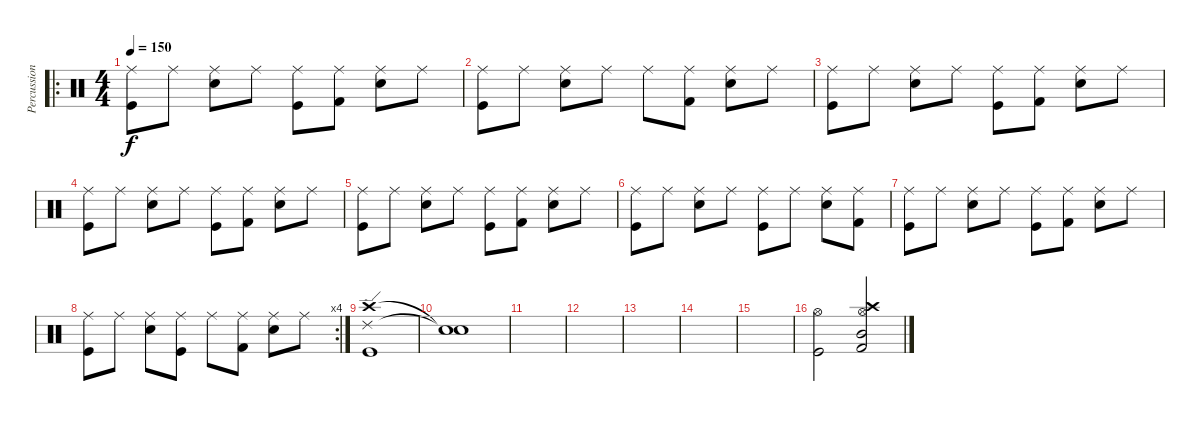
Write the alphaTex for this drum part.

\track ("Percussion" "Percussion") {instrument percussion}
\staff {score}
\articulation defaults
\ro
\ts (4 4)
\tempo 150
\clef neutral
\ks c
("Ride (middle)" "Kick (hit)").8{dy f} "Ride (middle)".8 ("Ride (middle)" "Electric Snare (hit)").8 "Ride (middle)".8 ("Ride (middle)" "Kick (hit)").8 ("Ride (middle)" "Kick (hit) 2").8 ("Ride (middle)" "Electric Snare (hit)").8 "Ride (middle)".8 |
("Ride (middle)" "Kick (hit)").8 "Ride (middle)".8 ("Ride (middle)" "Electric Snare (hit)").8 "Ride (middle)".8 "Ride (middle)".8 ("Ride (middle)" "Kick (hit) 2").8 ("Ride (middle)" "Electric Snare (hit)").8 "Ride (middle)".8 |
("Ride (middle)" "Kick (hit)").8 "Ride (middle)".8 ("Ride (middle)" "Electric Snare (hit)").8 "Ride (middle)".8 ("Ride (middle)" "Kick (hit)").8 ("Ride (middle)" "Kick (hit) 2").8 ("Ride (middle)" "Electric Snare (hit)").8 "Ride (middle)".8 |
("Ride (middle)" "Kick (hit)").8 "Ride (middle)".8 ("Ride (middle)" "Electric Snare (hit)").8 "Ride (middle)".8 ("Ride (middle)" "Kick (hit)").8 ("Ride (middle)" "Kick (hit) 2").8 ("Ride (middle)" "Electric Snare (hit)").8 "Ride (middle)".8 |
("Ride (middle)" "Kick (hit)").8 "Ride (middle)".8 ("Ride (middle)" "Electric Snare (hit)").8 "Ride (middle)".8 ("Ride (middle)" "Kick (hit)").8 ("Ride (middle)" "Kick (hit) 2").8 ("Ride (middle)" "Electric Snare (hit)").8 "Ride (middle)".8 |
("Ride (middle)" "Kick (hit)").8 "Ride (middle)".8 ("Ride (middle)" "Electric Snare (hit)").8 "Ride (middle)".8 ("Ride (middle)" "Kick (hit)").8 "Ride (middle)".8 ("Ride (middle)" "Electric Snare (hit)").8 ("Ride (middle)" "Kick (hit) 2").8 |
("Ride (middle)" "Kick (hit)").8 "Ride (middle)".8 ("Ride (middle)" "Electric Snare (hit)").8 "Ride (middle)".8 ("Ride (middle)" "Kick (hit)").8 ("Ride (middle)" "Kick (hit) 2").8 ("Ride (middle)" "Electric Snare (hit)").8 "Ride (middle)".8 |
\rc 4
("Ride (middle)" "Kick (hit)").8 "Ride (middle)".8 ("Ride (middle)" "Electric Snare (hit)").8 ("Ride (middle)" "Kick (hit)").8 "Ride (middle)".8 ("Ride (middle)" "Kick (hit) 2").8 ("Ride (middle)" "Electric Snare (hit)").8 "Ride (middle)".8 |
("Ride (edge) 2" "Crash high (hit)" "Kick (hit)").1 |
("Snare (hit)"{t} "Snare (hit)"{t}).1 |
|
|
|
|
|
("Hi-Hat (open)" "Kick (hit)").2 ("Crash high (hit)" "Hi-Hat (open)" "Mid Tom (hit)" "Kick (hit) 2").2
